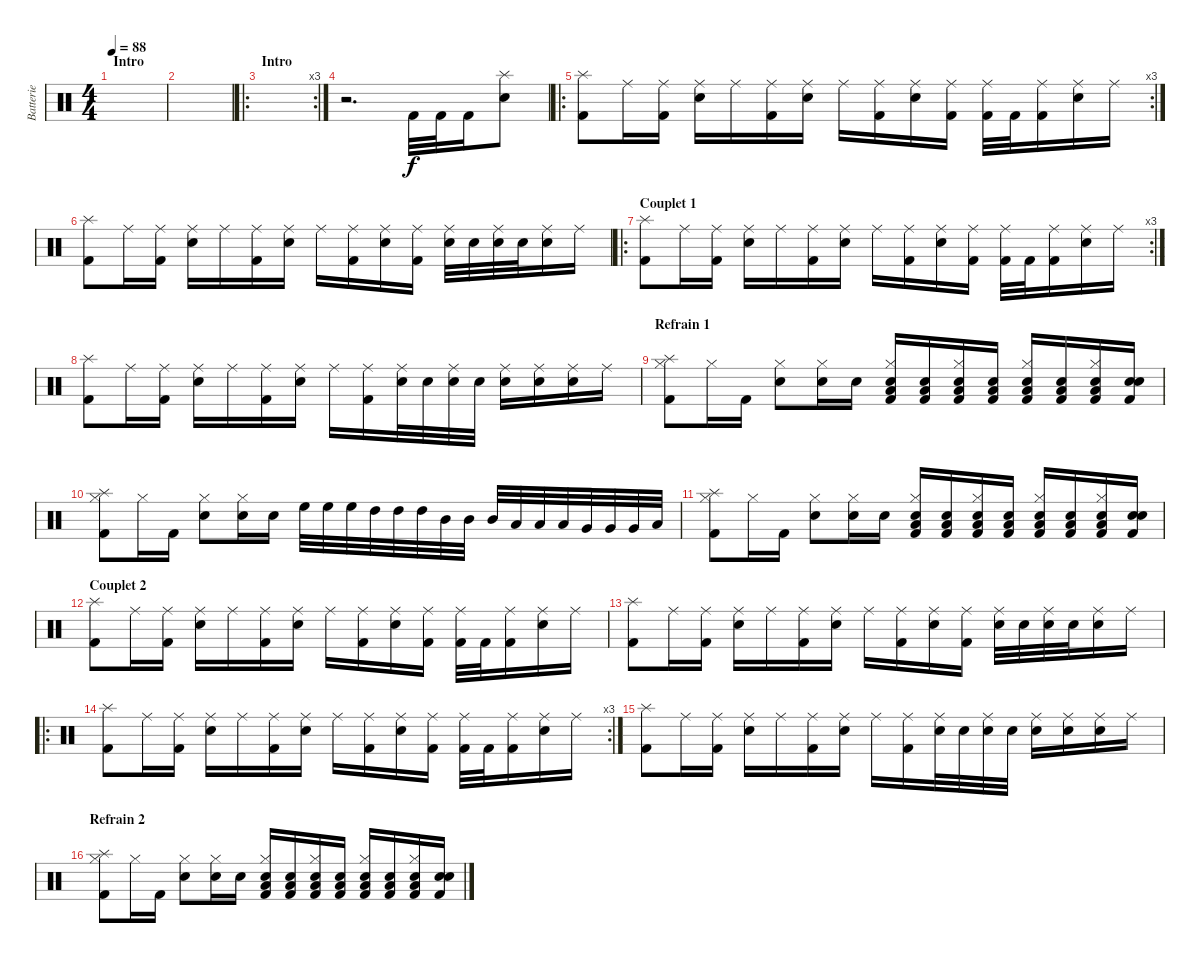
\track ("Batterie" "Batterie") {instrument percussion}
\staff {score}
\articulation defaults
\ts (4 4)
\section ("" "Intro")
\tempo 88
\clef neutral
\ks c
|
|
\ro
\rc 3
\section ("" "Intro")
|
\section ("" "")
r.2{d} "Kick (hit) 2".32 "Kick (hit) 2".32 "Kick (hit) 2".16 ("Splash (hit)" "Snare (hit) 2").8 |
\ro
\rc 3
("Splash (hit)" "Kick (hit) 2").8 "Ride (middle)".16 ("Ride (middle)" "Kick (hit) 2").16 ("Ride (middle)" "Snare (hit) 2").16 "Ride (middle)".16 ("Ride (middle)" "Kick (hit) 2").16 ("Ride (middle)" "Snare (hit) 2").16 "Ride (middle)".16 ("Ride (middle)" "Kick (hit) 2").16 ("Ride (middle)" "Snare (hit) 2").16 ("Ride (middle)" "Kick (hit) 2").16 ("Ride (middle)" "Kick (hit) 2").32 "Kick (hit) 2".32 ("Ride (middle)" "Kick (hit) 2").16 ("Ride (middle)" "Snare (hit) 2").16 "Ride (middle)".16 |
("Splash (hit)" "Kick (hit) 2").8 "Ride (middle)".16 ("Ride (middle)" "Kick (hit) 2").16 ("Ride (middle)" "Snare (hit) 2").16 "Ride (middle)".16 ("Ride (middle)" "Kick (hit) 2").16 ("Ride (middle)" "Snare (hit) 2").16 "Ride (middle)".16 ("Ride (middle)" "Kick (hit) 2").16 ("Ride (middle)" "Snare (hit) 2").16 ("Ride (middle)" "Kick (hit) 2").16 ("Ride (middle)" "Snare (hit) 2").32 "Snare (hit) 2".32 ("Ride (middle)" "Snare (hit) 2").32 "Snare (hit) 2".32 ("Ride (middle)" "Snare (hit) 2").16 "Ride (middle)".16 |
\ro
\rc 3
\section ("" "Couplet 1")
("Splash (hit)" "Kick (hit) 2").8 "Ride (middle)".16 ("Ride (middle)" "Kick (hit) 2").16 ("Ride (middle)" "Snare (hit) 2").16 "Ride (middle)".16 ("Ride (middle)" "Kick (hit) 2").16 ("Ride (middle)" "Snare (hit) 2").16 "Ride (middle)".16 ("Ride (middle)" "Kick (hit) 2").16 ("Ride (middle)" "Snare (hit) 2").16 ("Ride (middle)" "Kick (hit) 2").16 ("Ride (middle)" "Kick (hit) 2").32 "Kick (hit) 2".32 ("Ride (middle)" "Kick (hit) 2").16 ("Ride (middle)" "Snare (hit) 2").16 "Ride (middle)".16 |
("Splash (hit)" "Kick (hit) 2").8 "Ride (middle)".16 ("Ride (middle)" "Kick (hit) 2").16 ("Ride (middle)" "Snare (hit) 2").16 "Ride (middle)".16 ("Ride (middle)" "Kick (hit) 2").16 ("Ride (middle)" "Snare (hit) 2").16 "Ride (middle)".16 ("Ride (middle)" "Kick (hit) 2").16 ("Ride (middle)" "Snare (hit) 2").32 "Snare (hit) 2".32 ("Ride (middle)" "Snare (hit) 2").32 "Snare (hit) 2".32 ("Ride (middle)" "Snare (hit) 2").16 ("Ride (middle)" "Snare (hit) 2").16 ("Ride (middle)" "Snare (hit) 2").16 "Ride (middle)".16 |
\section ("" "Refrain 1")
("Splash (hit)" "Hi-Hat (closed)" "Kick (hit) 2").8 "Hi-Hat (closed)".16 "Kick (hit) 2".16 ("Hi-Hat (closed)" "Snare (hit) 2").8 ("Hi-Hat (closed)" "Snare (hit) 2").16 "Snare (hit) 2".16 ("Hi-Hat (closed)" "Low Floor Tom (hit)" "Snare (hit) 2" "Kick (hit) 2").16 ("Low Floor Tom (hit)" "Snare (hit) 2" "Kick (hit) 2").16 ("Hi-Hat (closed)" "Low Floor Tom (hit)" "Snare (hit) 2" "Kick (hit) 2").16 ("Low Floor Tom (hit)" "Snare (hit) 2" "Kick (hit) 2").16 ("Hi-Hat (closed)" "Low Floor Tom (hit)" "Snare (hit) 2" "Kick (hit) 2").16 ("Low Floor Tom (hit)" "Snare (hit) 2" "Kick (hit) 2").16 ("Hi-Hat (closed)" "Low Floor Tom (hit)" "Snare (hit) 2" "Kick (hit) 2").16 ("Snare (hit)" "Snare (hit) 2" "Kick (hit) 2").16 |
("Splash (hit)" "Hi-Hat (closed)" "Kick (hit) 2").8 "Hi-Hat (closed)".16 "Kick (hit) 2".16 ("Hi-Hat (closed)" "Snare (hit) 2").8 ("Hi-Hat (closed)" "Snare (hit) 2").16 "Snare (hit) 2".16 "High Floor Tom (hit)".32 "High Floor Tom (hit)".32 "High Floor Tom (hit)".32 "High Tom (hit)".32 "High Tom (hit)".32 "High Tom (hit)".32 "Mid Tom (hit)".32 "Mid Tom (hit)".32 "Mid Tom (hit)".32 "Low Tom (hit)".32 "Low Tom (hit)".32 "Low Tom (hit)".32 "Very Low Tom (hit)".32 "Very Low Tom (hit)".32 "Very Low Tom (hit)".32 "Low Floor Tom (hit)".32 |
("Splash (hit)" "Hi-Hat (closed)" "Kick (hit) 2").8 "Hi-Hat (closed)".16 "Kick (hit) 2".16 ("Hi-Hat (closed)" "Snare (hit) 2").8 ("Hi-Hat (closed)" "Snare (hit) 2").16 "Snare (hit) 2".16 ("Hi-Hat (closed)" "Low Floor Tom (hit)" "Snare (hit) 2" "Kick (hit) 2").16 ("Low Floor Tom (hit)" "Snare (hit) 2" "Kick (hit) 2").16 ("Hi-Hat (closed)" "Low Floor Tom (hit)" "Snare (hit) 2" "Kick (hit) 2").16 ("Low Floor Tom (hit)" "Snare (hit) 2" "Kick (hit) 2").16 ("Hi-Hat (closed)" "Low Floor Tom (hit)" "Snare (hit) 2" "Kick (hit) 2").16 ("Low Floor Tom (hit)" "Snare (hit) 2" "Kick (hit) 2").16 ("Hi-Hat (closed)" "Low Floor Tom (hit)" "Snare (hit) 2" "Kick (hit) 2").16 ("Snare (hit)" "Snare (hit) 2" "Kick (hit) 2").16 |
\section ("" "Couplet 2")
("Splash (hit)" "Kick (hit) 2").8 "Ride (middle)".16 ("Ride (middle)" "Kick (hit) 2").16 ("Ride (middle)" "Snare (hit) 2").16 "Ride (middle)".16 ("Ride (middle)" "Kick (hit) 2").16 ("Ride (middle)" "Snare (hit) 2").16 "Ride (middle)".16 ("Ride (middle)" "Kick (hit) 2").16 ("Ride (middle)" "Snare (hit) 2").16 ("Ride (middle)" "Kick (hit) 2").16 ("Ride (middle)" "Kick (hit) 2").32 "Kick (hit) 2".32 ("Ride (middle)" "Kick (hit) 2").16 ("Ride (middle)" "Snare (hit) 2").16 "Ride (middle)".16 |
("Splash (hit)" "Kick (hit) 2").8 "Ride (middle)".16 ("Ride (middle)" "Kick (hit) 2").16 ("Ride (middle)" "Snare (hit) 2").16 "Ride (middle)".16 ("Ride (middle)" "Kick (hit) 2").16 ("Ride (middle)" "Snare (hit) 2").16 "Ride (middle)".16 ("Ride (middle)" "Kick (hit) 2").16 ("Ride (middle)" "Snare (hit) 2").16 ("Ride (middle)" "Kick (hit) 2").16 ("Ride (middle)" "Snare (hit) 2").32 "Snare (hit) 2".32 ("Ride (middle)" "Snare (hit) 2").32 "Snare (hit) 2".32 ("Ride (middle)" "Snare (hit) 2").16 "Ride (middle)".16 |
\ro
\rc 3
("Splash (hit)" "Kick (hit) 2").8 "Ride (middle)".16 ("Ride (middle)" "Kick (hit) 2").16 ("Ride (middle)" "Snare (hit) 2").16 "Ride (middle)".16 ("Ride (middle)" "Kick (hit) 2").16 ("Ride (middle)" "Snare (hit) 2").16 "Ride (middle)".16 ("Ride (middle)" "Kick (hit) 2").16 ("Ride (middle)" "Snare (hit) 2").16 ("Ride (middle)" "Kick (hit) 2").16 ("Ride (middle)" "Kick (hit) 2").32 "Kick (hit) 2".32 ("Ride (middle)" "Kick (hit) 2").16 ("Ride (middle)" "Snare (hit) 2").16 "Ride (middle)".16 |
("Splash (hit)" "Kick (hit) 2").8 "Ride (middle)".16 ("Ride (middle)" "Kick (hit) 2").16 ("Ride (middle)" "Snare (hit) 2").16 "Ride (middle)".16 ("Ride (middle)" "Kick (hit) 2").16 ("Ride (middle)" "Snare (hit) 2").16 "Ride (middle)".16 ("Ride (middle)" "Kick (hit) 2").16 ("Ride (middle)" "Snare (hit) 2").32 "Snare (hit) 2".32 ("Ride (middle)" "Snare (hit) 2").32 "Snare (hit) 2".32 ("Ride (middle)" "Snare (hit) 2").16 ("Ride (middle)" "Snare (hit) 2").16 ("Ride (middle)" "Snare (hit) 2").16 "Ride (middle)".16 |
\section ("" "Refrain 2")
("Splash (hit)" "Hi-Hat (closed)" "Kick (hit) 2").8 "Hi-Hat (closed)".16 "Kick (hit) 2".16 ("Hi-Hat (closed)" "Snare (hit) 2").8 ("Hi-Hat (closed)" "Snare (hit) 2").16 "Snare (hit) 2".16 ("Hi-Hat (closed)" "Low Floor Tom (hit)" "Snare (hit) 2" "Kick (hit) 2").16 ("Low Floor Tom (hit)" "Snare (hit) 2" "Kick (hit) 2").16 ("Hi-Hat (closed)" "Low Floor Tom (hit)" "Snare (hit) 2" "Kick (hit) 2").16 ("Low Floor Tom (hit)" "Snare (hit) 2" "Kick (hit) 2").16 ("Hi-Hat (closed)" "Low Floor Tom (hit)" "Snare (hit) 2" "Kick (hit) 2").16 ("Low Floor Tom (hit)" "Snare (hit) 2" "Kick (hit) 2").16 ("Hi-Hat (closed)" "Low Floor Tom (hit)" "Snare (hit) 2" "Kick (hit) 2").16 ("Snare (hit)" "Snare (hit) 2" "Kick (hit) 2").16
